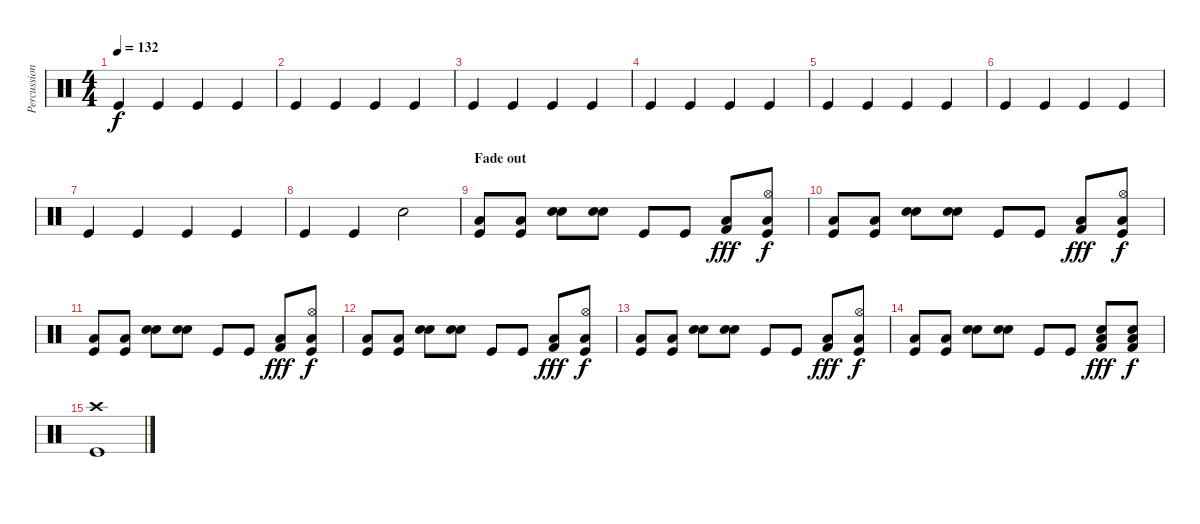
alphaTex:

\track ("Percussions" "Percussion") {instrument percussion}
\staff {score}
\articulation defaults
\ts (4 4)
\tempo 132
\clef neutral
\ks c "Kick (hit)".4{dy f} "Kick (hit)".4 "Kick (hit)".4 "Kick (hit)".4
|
"Kick (hit)".4 "Kick (hit)".4 "Kick (hit)".4 "Kick (hit)".4 |
"Kick (hit)".4 "Kick (hit)".4 "Kick (hit)".4 "Kick (hit)".4 |
"Kick (hit)".4 "Kick (hit)".4 "Kick (hit)".4 "Kick (hit)".4 |
"Kick (hit)".4 "Kick (hit)".4 "Kick (hit)".4 "Kick (hit)".4 |
"Kick (hit)".4 "Kick (hit)".4 "Kick (hit)".4 "Kick (hit)".4 |
"Kick (hit)".4 "Kick (hit)".4 "Kick (hit)".4 "Kick (hit)".4 |
"Kick (hit)".4 "Kick (hit)".4 "Electric Snare (hit)".2 |
\section ("" "Fade out")
("Low Floor Tom (hit)" "Kick (hit)").8 ("Low Floor Tom (hit)" "Kick (hit)").8 ("Electric Snare (hit)" "Snare (hit) 2").8{bu 480} ("Electric Snare (hit)" "Snare (hit) 2").8{bu 480} "Kick (hit)".8 "Kick (hit)".8 ("Kick (hit) 2" "Low Floor Tom (hit)").8{dy fff} ("Hi-Hat (open)" "Low Tom (hit)" "Kick (hit)").8{dy f} |
("Low Floor Tom (hit)" "Kick (hit)").8 ("Low Floor Tom (hit)" "Kick (hit)").8 ("Electric Snare (hit)" "Snare (hit) 2").8{bu 480} ("Electric Snare (hit)" "Snare (hit) 2").8{bu 480} "Kick (hit)".8 "Kick (hit)".8 ("Kick (hit) 2" "Low Floor Tom (hit)").8{dy fff} ("Hi-Hat (open)" "Low Tom (hit)" "Kick (hit)").8{dy f} |
("Low Floor Tom (hit)" "Kick (hit)").8 ("Low Floor Tom (hit)" "Kick (hit)").8 ("Electric Snare (hit)" "Snare (hit) 2").8{bu 480} ("Electric Snare (hit)" "Snare (hit) 2").8{bu 480} "Kick (hit)".8 "Kick (hit)".8 ("Kick (hit) 2" "Low Floor Tom (hit)").8{dy fff} ("Hi-Hat (open)" "Low Tom (hit)" "Kick (hit)").8{dy f} |
("Low Floor Tom (hit)" "Kick (hit)").8 ("Low Floor Tom (hit)" "Kick (hit)").8 ("Electric Snare (hit)" "Snare (hit) 2").8{bu 480} ("Electric Snare (hit)" "Snare (hit) 2").8{bu 480} "Kick (hit)".8 "Kick (hit)".8 ("Kick (hit) 2" "Low Floor Tom (hit)").8{dy fff} ("Hi-Hat (open)" "Low Tom (hit)" "Kick (hit)").8{dy f} |
("Low Floor Tom (hit)" "Kick (hit)").8 ("Low Floor Tom (hit)" "Kick (hit)").8 ("Electric Snare (hit)" "Snare (hit) 2").8{bu 480} ("Electric Snare (hit)" "Snare (hit) 2").8{bu 480} "Kick (hit)".8 "Kick (hit)".8 ("Kick (hit) 2" "Low Floor Tom (hit)").8{dy fff} ("Hi-Hat (open)" "Low Tom (hit)" "Kick (hit)").8{dy f} |
("Low Floor Tom (hit)" "Kick (hit)").8 ("Low Floor Tom (hit)" "Kick (hit)").8 ("Electric Snare (hit)" "Snare (hit) 2").8{bu 480} ("Electric Snare (hit)" "Snare (hit) 2").8{bu 480} "Kick (hit)".8 "Kick (hit)".8 ("Electric Snare (hit)" "Kick (hit) 2" "Low Floor Tom (hit)").8{dy fff} ("Electric Snare (hit)" "Kick (hit) 2" "Low Floor Tom (hit)").8{dy f} |
("Crash high (hit)" "Kick (hit)").1
